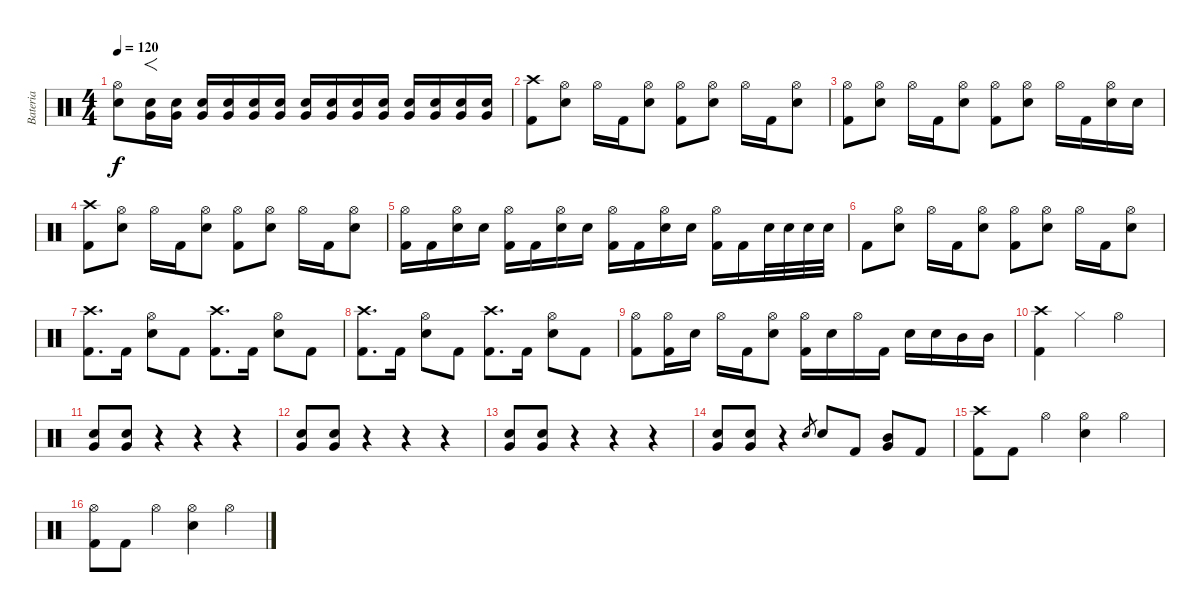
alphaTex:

\track ("Bateria" "Bateria") {instrument percussion}
\staff {score}
\articulation defaults
\ts (4 4)
\tempo 120
\clef neutral
\ks c
("Hi-Hat (open)" "Electric Snare (hit)").8{dy f} ("Electric Snare (hit)" "Very Low Tom (hit)").16{f} ("Electric Snare (hit)" "Very Low Tom (hit)").16 ("Electric Snare (hit)" "Very Low Tom (hit)").16 ("Electric Snare (hit)" "Very Low Tom (hit)").16 ("Electric Snare (hit)" "Very Low Tom (hit)").16 ("Electric Snare (hit)" "Very Low Tom (hit)").16 ("Electric Snare (hit)" "Very Low Tom (hit)").16 ("Electric Snare (hit)" "Very Low Tom (hit)").16 ("Electric Snare (hit)" "Very Low Tom (hit)").16 ("Electric Snare (hit)" "Very Low Tom (hit)").16 ("Electric Snare (hit)" "Very Low Tom (hit)").16 ("Electric Snare (hit)" "Very Low Tom (hit)").16 ("Electric Snare (hit)" "Very Low Tom (hit)").16 ("Electric Snare (hit)" "Very Low Tom (hit)").16 |
("Crash high (hit)" "Kick (hit) 2").8 ("Hi-Hat (open)" "Electric Snare (hit)").8 "Hi-Hat (open)".16 "Kick (hit) 2".16 ("Hi-Hat (open)" "Electric Snare (hit)").8 ("Hi-Hat (open)" "Kick (hit) 2").8 ("Hi-Hat (open)" "Electric Snare (hit)").8 "Hi-Hat (open)".16 "Kick (hit) 2".16 ("Hi-Hat (open)" "Electric Snare (hit)").8 |
("Hi-Hat (open)" "Kick (hit) 2").8 ("Hi-Hat (open)" "Electric Snare (hit)").8 "Hi-Hat (open)".16 "Kick (hit) 2".16 ("Hi-Hat (open)" "Electric Snare (hit)").8 ("Hi-Hat (open)" "Kick (hit) 2").8 ("Hi-Hat (open)" "Electric Snare (hit)").8 "Hi-Hat (open)".16 "Kick (hit) 2".16 ("Hi-Hat (open)" "Electric Snare (hit)").16 "Electric Snare (hit)".16 |
("Crash high (hit)" "Kick (hit) 2").8 ("Hi-Hat (open)" "Electric Snare (hit)").8 "Hi-Hat (open)".16 "Kick (hit) 2".16 ("Hi-Hat (open)" "Electric Snare (hit)").8 ("Hi-Hat (open)" "Kick (hit) 2").8 ("Hi-Hat (open)" "Electric Snare (hit)").8 "Hi-Hat (open)".16 "Kick (hit) 2".16 ("Hi-Hat (open)" "Electric Snare (hit)").8 |
("Hi-Hat (open)" "Kick (hit) 2").16 "Kick (hit) 2".16 ("Hi-Hat (open)" "Electric Snare (hit)").16 "Electric Snare (hit)".16 ("Hi-Hat (open)" "Kick (hit) 2").16 "Kick (hit) 2".16 ("Hi-Hat (open)" "Electric Snare (hit)").16 "Electric Snare (hit)".16 ("Hi-Hat (open)" "Kick (hit) 2").16 "Kick (hit) 2".16 ("Hi-Hat (open)" "Electric Snare (hit)").16 "Electric Snare (hit)".16 ("Hi-Hat (open)" "Kick (hit) 2").16 "Kick (hit) 2".16 "Electric Snare (hit)".32 "Electric Snare (hit)".32 "Electric Snare (hit)".32 "Electric Snare (hit)".32 |
"Kick (hit) 2".8 ("Hi-Hat (open)" "Electric Snare (hit)").8 "Hi-Hat (open)".16 "Kick (hit) 2".16 ("Hi-Hat (open)" "Electric Snare (hit)").8 ("Hi-Hat (open)" "Kick (hit) 2").8 ("Hi-Hat (open)" "Electric Snare (hit)").8 "Hi-Hat (open)".16 "Kick (hit) 2".16 ("Hi-Hat (open)" "Electric Snare (hit)").8 |
("Crash high (hit)" "Kick (hit) 2").8{d} "Kick (hit) 2".16 ("Hi-Hat (open)" "Electric Snare (hit)").8 "Kick (hit) 2".8 ("Crash high (hit)" "Kick (hit) 2").8{d} "Kick (hit) 2".16 ("Hi-Hat (open)" "Electric Snare (hit)").8 "Kick (hit) 2".8 |
("Crash high (hit)" "Kick (hit) 2").8{d} "Kick (hit) 2".16 ("Hi-Hat (open)" "Electric Snare (hit)").8 "Kick (hit) 2".8 ("Crash high (hit)" "Kick (hit) 2").8{d} "Kick (hit) 2".16 ("Hi-Hat (open)" "Electric Snare (hit)").8 "Kick (hit) 2".8 |
("Hi-Hat (open)" "Kick (hit) 2").8 ("Hi-Hat (open)" "Kick (hit) 2").16 "Electric Snare (hit)".16 "Hi-Hat (open)".16 "Kick (hit) 2".16 ("Hi-Hat (open)" "Electric Snare (hit)").8 ("Hi-Hat (open)" "Kick (hit) 2").16 "Electric Snare (hit)".16 "Hi-Hat (open)".16 "Kick (hit) 2".16 "Electric Snare (hit)".16 "Electric Snare (hit)".16 "Mid Tom (hit)".16 "Mid Tom (hit)".16 |
("Crash high (hit)" "Kick (hit) 2").4 "Hi-Hat (closed)".4 "Hi-Hat (open)".2 |
("Electric Snare (hit)" "Very Low Tom (hit)").8 ("Electric Snare (hit)" "Very Low Tom (hit)").8 r.4 r.4 r.4 |
("Electric Snare (hit)" "Very Low Tom (hit)").8 ("Electric Snare (hit)" "Very Low Tom (hit)").8 r.4 r.4 r.4 |
("Electric Snare (hit)" "Very Low Tom (hit)").8 ("Electric Snare (hit)" "Very Low Tom (hit)").8 r.4 r.4 r.4 |
("Electric Snare (hit)" "Very Low Tom (hit)").8 ("Electric Snare (hit)" "Very Low Tom (hit)").8 r.4 "Electric Snare (hit)".8{gr} "Electric Snare (hit)".8 "Kick (hit) 2".8 ("Mid Tom (hit)" "Very Low Tom (hit)").8 "Kick (hit) 2".8 |
("Crash high (hit)" "Kick (hit) 2").8 "Kick (hit) 2".8 "Hi-Hat (open)".4 ("Hi-Hat (open)" "Electric Snare (hit)").4 "Hi-Hat (open)".4 |
("Hi-Hat (open)" "Kick (hit) 2").8 "Kick (hit) 2".8 "Hi-Hat (open)".4 ("Hi-Hat (open)" "Electric Snare (hit)").4 "Hi-Hat (open)".4
